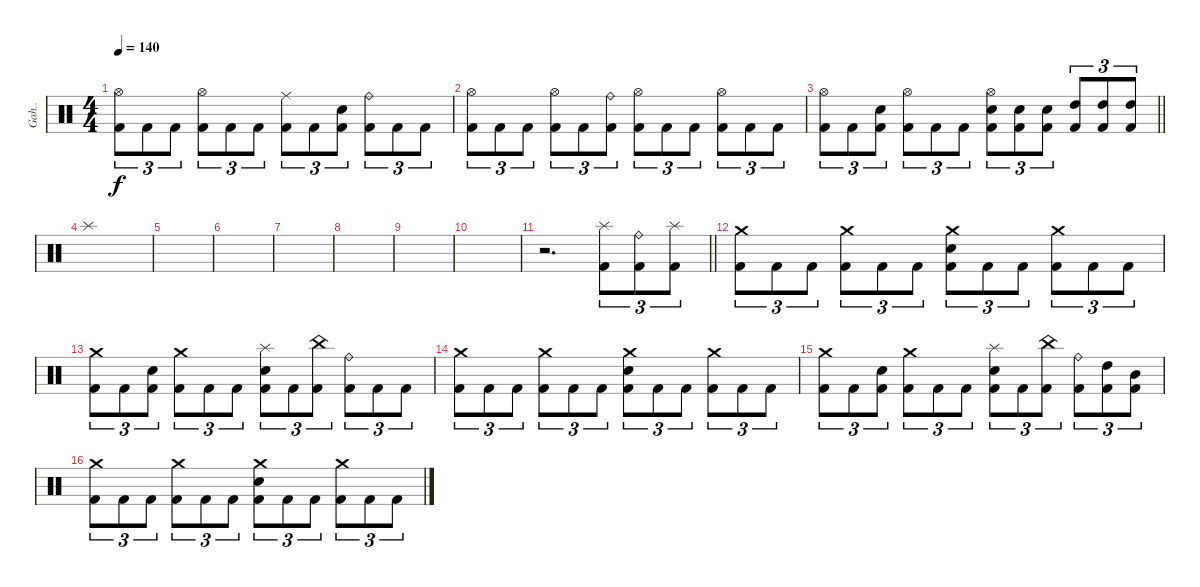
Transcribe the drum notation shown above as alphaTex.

\track ("Gah.." "Gah..") {instrument percussion}
\staff {score}
\articulation defaults
\ts (4 4)
\tempo 140
\clef neutral
\ks c
("Hi-Hat (open)" "Kick (hit) 2").8{tu (3 2) dy f} "Kick (hit) 2".8{tu (3 2)} "Kick (hit) 2".8{tu (3 2)} ("Hi-Hat (open)" "Kick (hit) 2").8{tu (3 2)} "Kick (hit) 2".8{tu (3 2)} "Kick (hit) 2".8{tu (3 2)} ("Ride (middle)" "Kick (hit) 2").8{tu (3 2)} "Kick (hit) 2".8{tu (3 2)} ("Electric Snare (hit)" "Kick (hit) 2").8{tu (3 2)} ("Ride (bell)" "Kick (hit) 2").8{tu (3 2)} "Kick (hit) 2".8{tu (3 2)} "Kick (hit) 2".8{tu (3 2)} |
("Hi-Hat (open)" "Kick (hit) 2").8{tu (3 2)} "Kick (hit) 2".8{tu (3 2)} "Kick (hit) 2".8{tu (3 2)} ("Hi-Hat (open)" "Kick (hit) 2").8{tu (3 2)} "Kick (hit) 2".8{tu (3 2)} ("Ride (bell)" "Kick (hit) 2").8{tu (3 2)} ("Hi-Hat (open)" "Kick (hit) 2").8{tu (3 2)} "Kick (hit) 2".8{tu (3 2)} "Kick (hit) 2".8{tu (3 2)} ("Hi-Hat (open)" "Kick (hit) 2").8{tu (3 2)} "Kick (hit) 2".8{tu (3 2)} "Kick (hit) 2".8{tu (3 2)} |
\barLineRight lightlight
("Hi-Hat (open)" "Kick (hit) 2").8{tu (3 2)} "Kick (hit) 2".8{tu (3 2)} ("Electric Snare (hit)" "Kick (hit) 2").8{tu (3 2)} ("Hi-Hat (open)" "Kick (hit) 2").8{tu (3 2)} "Kick (hit) 2".8{tu (3 2)} "Kick (hit) 2".8{tu (3 2)} ("Hi-Hat (open)" "Electric Snare (hit)" "Kick (hit) 2").8{tu (3 2)} ("Electric Snare (hit)" "Kick (hit) 2").8{tu (3 2)} ("Electric Snare (hit)" "Kick (hit) 2").8{tu (3 2)} ("High Tom (hit)" "Kick (hit) 2").8{tu (3 2)} ("High Tom (hit)" "Kick (hit) 2").8{tu (3 2)} ("High Tom (hit)" "Kick (hit) 2").8{tu (3 2)} |
\section ("" "")
"Splash (hit)".1 |
|
|
|
|
|
|
\barLineRight lightlight
r.2{d} ("Splash (hit)" "Kick (hit) 2").8{tu (3 2)} ("Ride (bell)" "Kick (hit) 2").8{tu (3 2)} ("Splash (hit)" "Kick (hit) 2").8{tu (3 2)} |
\section ("" "")
("Crash medium (hit)" "Kick (hit) 2").8{tu (3 2)} "Kick (hit) 2".8{tu (3 2)} "Kick (hit) 2".8{tu (3 2)} ("Crash medium (hit)" "Kick (hit) 2").8{tu (3 2)} "Kick (hit) 2".8{tu (3 2)} "Kick (hit) 2".8{tu (3 2)} ("Crash medium (hit)" "Electric Snare (hit)" "Kick (hit) 2").8{tu (3 2)} "Kick (hit) 2".8{tu (3 2)} "Kick (hit) 2".8{tu (3 2)} ("Crash medium (hit)" "Kick (hit) 2").8{tu (3 2)} "Kick (hit) 2".8{tu (3 2)} "Kick (hit) 2".8{tu (3 2)} |
("Crash medium (hit)" "Kick (hit) 2").8{tu (3 2)} "Kick (hit) 2".8{tu (3 2)} ("Electric Snare (hit)" "Kick (hit) 2").8{tu (3 2)} ("Crash medium (hit)" "Kick (hit) 2").8{tu (3 2)} "Kick (hit) 2".8{tu (3 2)} "Kick (hit) 2".8{tu (3 2)} ("Splash (hit)" "Electric Snare (hit)" "Kick (hit) 2").8{tu (3 2)} "Kick (hit) 2".8{tu (3 2)} ("China (hit)" "Kick (hit) 2").8{tu (3 2)} ("Ride (bell)" "Kick (hit) 2").8{tu (3 2)} "Kick (hit) 2".8{tu (3 2)} "Kick (hit) 2".8{tu (3 2)} |
("Crash medium (hit)" "Kick (hit) 2").8{tu (3 2)} "Kick (hit) 2".8{tu (3 2)} "Kick (hit) 2".8{tu (3 2)} ("Crash medium (hit)" "Kick (hit) 2").8{tu (3 2)} "Kick (hit) 2".8{tu (3 2)} "Kick (hit) 2".8{tu (3 2)} ("Crash medium (hit)" "Electric Snare (hit)" "Kick (hit) 2").8{tu (3 2)} "Kick (hit) 2".8{tu (3 2)} "Kick (hit) 2".8{tu (3 2)} ("Crash medium (hit)" "Kick (hit) 2").8{tu (3 2)} "Kick (hit) 2".8{tu (3 2)} "Kick (hit) 2".8{tu (3 2)} |
("Crash medium (hit)" "Kick (hit) 2").8{tu (3 2)} "Kick (hit) 2".8{tu (3 2)} ("Electric Snare (hit)" "Kick (hit) 2").8{tu (3 2)} ("Crash medium (hit)" "Kick (hit) 2").8{tu (3 2)} "Kick (hit) 2".8{tu (3 2)} "Kick (hit) 2".8{tu (3 2)} ("Splash (hit)" "Electric Snare (hit)" "Kick (hit) 2").8{tu (3 2)} "Kick (hit) 2".8{tu (3 2)} ("China (hit)" "Kick (hit) 2").8{tu (3 2)} ("Ride (bell)" "Kick (hit) 2").8{tu (3 2)} ("High Tom (hit)" "Kick (hit) 2").8{tu (3 2)} ("Mid Tom (hit)" "Kick (hit) 2").8{tu (3 2)} |
("Crash medium (hit)" "Kick (hit) 2").8{tu (3 2)} "Kick (hit) 2".8{tu (3 2)} "Kick (hit) 2".8{tu (3 2)} ("Crash medium (hit)" "Kick (hit) 2").8{tu (3 2)} "Kick (hit) 2".8{tu (3 2)} "Kick (hit) 2".8{tu (3 2)} ("Crash medium (hit)" "Electric Snare (hit)" "Kick (hit) 2").8{tu (3 2)} "Kick (hit) 2".8{tu (3 2)} "Kick (hit) 2".8{tu (3 2)} ("Crash medium (hit)" "Kick (hit) 2").8{tu (3 2)} "Kick (hit) 2".8{tu (3 2)} "Kick (hit) 2".8{tu (3 2)}
